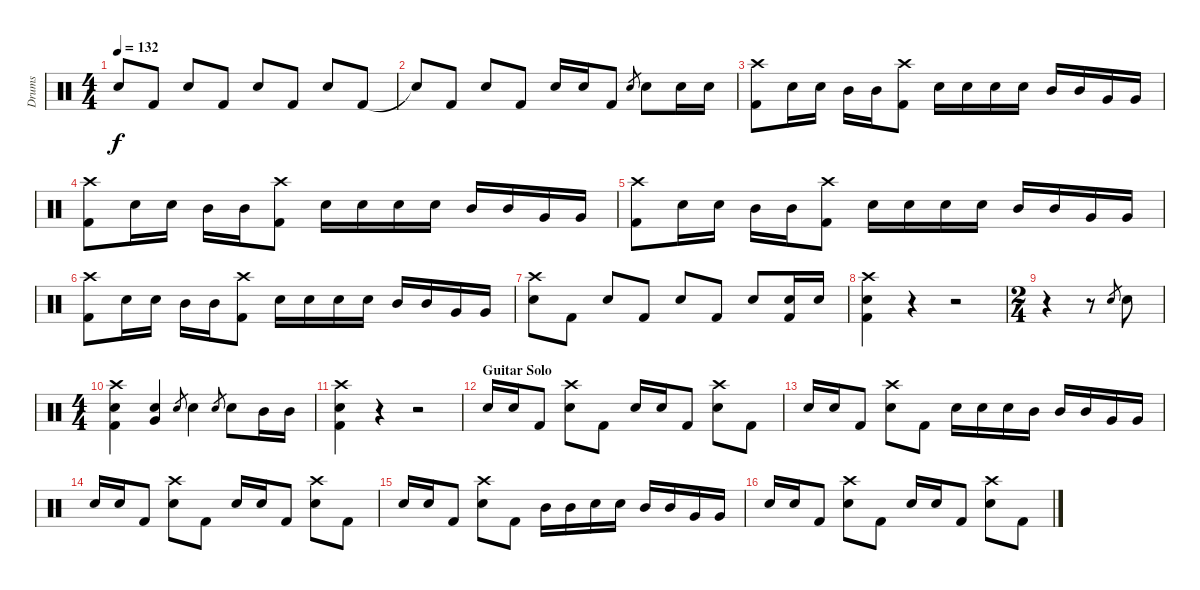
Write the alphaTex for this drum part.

\track ("Drums" "Drums") {instrument percussion}
\staff {score}
\articulation defaults
\ts (4 4)
\tempo 132
\clef neutral
\ks c "Electric Snare (hit)".8{dy f} "Kick (hit) 2".8 "Electric Snare (hit)".8 "Kick (hit) 2".8 "Electric Snare (hit)".8 "Kick (hit) 2".8 "Electric Snare (hit)".8 "Kick (hit) 2".8
|
"Snare (hit)"{t}.8 "Kick (hit) 2".8 "Electric Snare (hit)".8 "Kick (hit) 2".8 "Electric Snare (hit)".16 "Electric Snare (hit)".16 "Kick (hit) 2".8 "Electric Snare (hit)".8{gr} "Electric Snare (hit)".8 "Electric Snare (hit)".16 "Electric Snare (hit)".16 |
("Crash high (hit)" "Kick (hit) 2").8 "Electric Snare (hit)".16 "Electric Snare (hit)".16 "Mid Tom (hit)".16 "Mid Tom (hit)".16 ("Crash high (hit)" "Kick (hit) 2").8 "Electric Snare (hit)".16 "Electric Snare (hit)".16 "Electric Snare (hit)".16 "Electric Snare (hit)".16 "Mid Tom (hit)".16 "Mid Tom (hit)".16 "Very Low Tom (hit)".16 "Very Low Tom (hit)".16 |
("Crash high (hit)" "Kick (hit) 2").8 "Electric Snare (hit)".16 "Electric Snare (hit)".16 "Mid Tom (hit)".16 "Mid Tom (hit)".16 ("Crash high (hit)" "Kick (hit) 2").8 "Electric Snare (hit)".16 "Electric Snare (hit)".16 "Electric Snare (hit)".16 "Electric Snare (hit)".16 "Mid Tom (hit)".16 "Mid Tom (hit)".16 "Very Low Tom (hit)".16 "Very Low Tom (hit)".16 |
("Crash high (hit)" "Kick (hit) 2").8 "Electric Snare (hit)".16 "Electric Snare (hit)".16 "Mid Tom (hit)".16 "Mid Tom (hit)".16 ("Crash high (hit)" "Kick (hit) 2").8 "Electric Snare (hit)".16 "Electric Snare (hit)".16 "Electric Snare (hit)".16 "Electric Snare (hit)".16 "Mid Tom (hit)".16 "Mid Tom (hit)".16 "Very Low Tom (hit)".16 "Very Low Tom (hit)".16 |
("Crash high (hit)" "Kick (hit) 2").8 "Electric Snare (hit)".16 "Electric Snare (hit)".16 "Mid Tom (hit)".16 "Mid Tom (hit)".16 ("Crash high (hit)" "Kick (hit) 2").8 "Electric Snare (hit)".16 "Electric Snare (hit)".16 "Electric Snare (hit)".16 "Electric Snare (hit)".16 "Mid Tom (hit)".16 "Mid Tom (hit)".16 "Very Low Tom (hit)".16 "Very Low Tom (hit)".16 |
("Crash high (hit)" "Electric Snare (hit)").8 "Kick (hit) 2".8 "Electric Snare (hit)".8 "Kick (hit) 2".8 "Electric Snare (hit)".8 "Kick (hit) 2".8 "Electric Snare (hit)".8 ("Electric Snare (hit)" "Kick (hit) 2").16 "Electric Snare (hit)".16 |
("Crash high (hit)" "Electric Snare (hit)" "Kick (hit) 2").4 r.4 r.2 |
\ts (2 4)
r.4 r.8 "Electric Snare (hit)".8{gr} "Electric Snare (hit)".8 |
\ts (4 4)
("Crash high (hit)" "Electric Snare (hit)" "Kick (hit) 2").4 ("Very Low Tom (hit)" "Electric Snare (hit)").4 "Electric Snare (hit)".8{gr} "Electric Snare (hit)".4 "Electric Snare (hit)".8{gr} "Electric Snare (hit)".8 "Mid Tom (hit)".16 "Mid Tom (hit)".16 |
("Crash high (hit)" "Electric Snare (hit)" "Kick (hit) 2").4 r.4 r.2 |
\section ("" "Guitar Solo")
"Electric Snare (hit)".16 "Electric Snare (hit)".16 "Kick (hit) 2".8 ("Crash high (hit)" "Electric Snare (hit)").8 "Kick (hit) 2".8 "Electric Snare (hit)".16 "Electric Snare (hit)".16 "Kick (hit) 2".8 ("Crash high (hit)" "Electric Snare (hit)").8 "Kick (hit) 2".8 |
"Electric Snare (hit)".16 "Electric Snare (hit)".16 "Kick (hit) 2".8 ("Crash high (hit)" "Electric Snare (hit)").8 "Kick (hit) 2".8 "Electric Snare (hit)".16 "Electric Snare (hit)".16 "Electric Snare (hit)".16 "Mid Tom (hit)".16 "Mid Tom (hit)".16 "Mid Tom (hit)".16 "Very Low Tom (hit)".16 "Very Low Tom (hit)".16 |
"Electric Snare (hit)".16 "Electric Snare (hit)".16 "Kick (hit) 2".8 ("Crash high (hit)" "Electric Snare (hit)").8 "Kick (hit) 2".8 "Electric Snare (hit)".16 "Electric Snare (hit)".16 "Kick (hit) 2".8 ("Crash high (hit)" "Electric Snare (hit)").8 "Kick (hit) 2".8 |
"Electric Snare (hit)".16 "Electric Snare (hit)".16 "Kick (hit) 2".8 ("Crash high (hit)" "Electric Snare (hit)").8 "Kick (hit) 2".8 "Mid Tom (hit)".16 "Mid Tom (hit)".16 "Electric Snare (hit)".16 "Electric Snare (hit)".16 "Mid Tom (hit)".16 "Mid Tom (hit)".16 "Very Low Tom (hit)".16 "Very Low Tom (hit)".16 |
"Electric Snare (hit)".16 "Electric Snare (hit)".16 "Kick (hit) 2".8 ("Crash high (hit)" "Electric Snare (hit)").8 "Kick (hit) 2".8 "Electric Snare (hit)".16 "Electric Snare (hit)".16 "Kick (hit) 2".8 ("Crash high (hit)" "Electric Snare (hit)").8 "Kick (hit) 2".8
